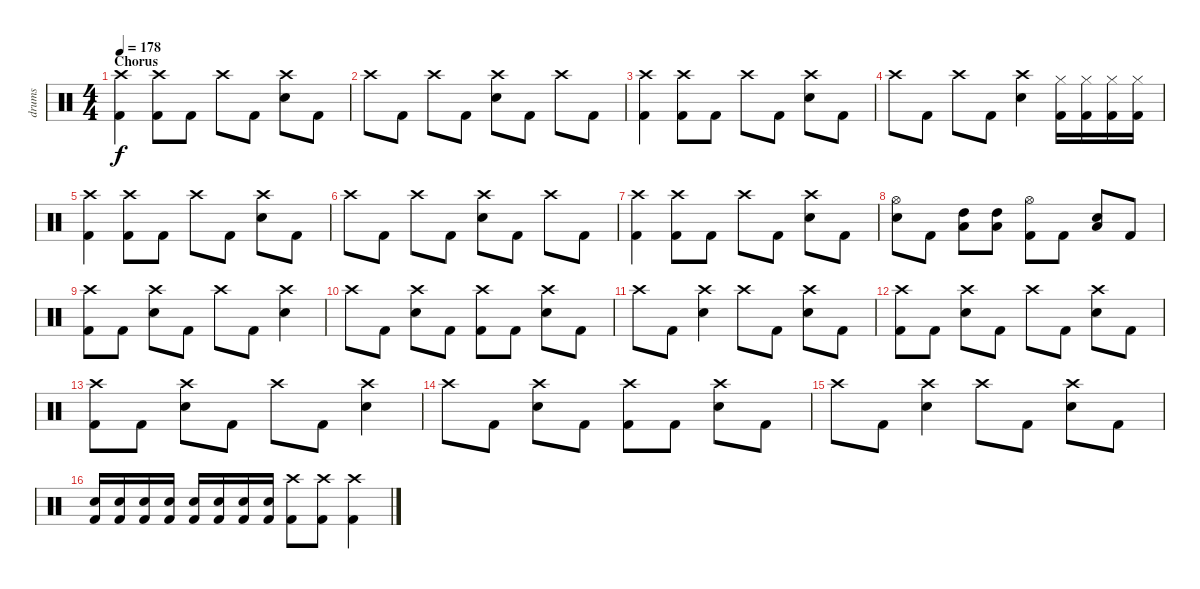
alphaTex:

\track ("drums" "drums") {instrument percussion}
\staff {score}
\articulation defaults
\ts (4 4)
\section ("" "Chorus")
\tempo 178
\clef neutral
\ks c
("Crash high (hit)" "Kick (hit) 2").4{dy f} ("Crash high (hit)" "Kick (hit) 2").8 "Kick (hit) 2".8 "Crash high (hit)".8 "Kick (hit) 2".8 ("Crash high (hit)" "Electric Snare (hit)").8 "Kick (hit) 2".8 |
"Crash high (hit)".8 "Kick (hit) 2".8 "Crash high (hit)".8 "Kick (hit) 2".8 ("Crash high (hit)" "Electric Snare (hit)").8 "Kick (hit) 2".8 "Crash high (hit)".8 "Kick (hit) 2".8 |
("Crash high (hit)" "Kick (hit) 2").4 ("Crash high (hit)" "Kick (hit) 2").8 "Kick (hit) 2".8 "Crash high (hit)".8 "Kick (hit) 2".8 ("Crash high (hit)" "Electric Snare (hit)").8 "Kick (hit) 2".8 |
"Crash high (hit)".8 "Kick (hit) 2".8 "Crash high (hit)".8 "Kick (hit) 2".8 ("Crash high (hit)" "Electric Snare (hit)").4 ("Hi-Hat (closed)" "Kick (hit) 2").16 ("Hi-Hat (closed)" "Kick (hit) 2").16 ("Hi-Hat (closed)" "Kick (hit) 2").16 ("Hi-Hat (closed)" "Kick (hit) 2").16 |
("Crash high (hit)" "Kick (hit) 2").4 ("Crash high (hit)" "Kick (hit) 2").8 "Kick (hit) 2".8 "Crash high (hit)".8 "Kick (hit) 2".8 ("Crash high (hit)" "Electric Snare (hit)").8 "Kick (hit) 2".8 |
"Crash high (hit)".8 "Kick (hit) 2".8 "Crash high (hit)".8 "Kick (hit) 2".8 ("Crash high (hit)" "Electric Snare (hit)").8 "Kick (hit) 2".8 "Crash high (hit)".8 "Kick (hit) 2".8 |
("Crash high (hit)" "Kick (hit) 2").4 ("Crash high (hit)" "Kick (hit) 2").8 "Kick (hit) 2".8 "Crash high (hit)".8 "Kick (hit) 2".8 ("Crash high (hit)" "Electric Snare (hit)").8 "Kick (hit) 2".8 |
("Hi-Hat (open)" "Electric Snare (hit)").8 "Kick (hit) 2".8 ("High Tom (hit)" "Low Tom (hit)").8 ("High Tom (hit)" "Low Tom (hit)").8 ("Hi-Hat (open)" "Kick (hit) 2").8 "Kick (hit) 2".8 ("Low Tom (hit)" "Electric Snare (hit)").8 "Kick (hit) 2".8 |
("Crash high (hit)" "Kick (hit) 2").8 "Kick (hit) 2".8 ("Crash high (hit)" "Electric Snare (hit)").8 "Kick (hit) 2".8 "Crash high (hit)".8 "Kick (hit) 2".8 ("Crash high (hit)" "Electric Snare (hit)").4 |
"Crash high (hit)".8 "Kick (hit) 2".8 ("Crash high (hit)" "Electric Snare (hit)").8 "Kick (hit) 2".8 ("Crash high (hit)" "Kick (hit) 2").8 "Kick (hit) 2".8 ("Crash high (hit)" "Electric Snare (hit)").8 "Kick (hit) 2".8 |
"Crash high (hit)".8 "Kick (hit) 2".8 ("Crash high (hit)" "Electric Snare (hit)").4 "Crash high (hit)".8 "Kick (hit) 2".8 ("Crash high (hit)" "Electric Snare (hit)").8 "Kick (hit) 2".8 |
("Crash high (hit)" "Kick (hit) 2").8 "Kick (hit) 2".8 ("Crash high (hit)" "Electric Snare (hit)").8 "Kick (hit) 2".8 "Crash high (hit)".8 "Kick (hit) 2".8 ("Crash high (hit)" "Electric Snare (hit)").8 "Kick (hit) 2".8 |
("Crash high (hit)" "Kick (hit) 2").8 "Kick (hit) 2".8 ("Crash high (hit)" "Electric Snare (hit)").8 "Kick (hit) 2".8 "Crash high (hit)".8 "Kick (hit) 2".8 ("Crash high (hit)" "Electric Snare (hit)").4 |
"Crash high (hit)".8 "Kick (hit) 2".8 ("Crash high (hit)" "Electric Snare (hit)").8 "Kick (hit) 2".8 ("Crash high (hit)" "Kick (hit) 2").8 "Kick (hit) 2".8 ("Crash high (hit)" "Electric Snare (hit)").8 "Kick (hit) 2".8 |
"Crash high (hit)".8 "Kick (hit) 2".8 ("Crash high (hit)" "Electric Snare (hit)").4 "Crash high (hit)".8 "Kick (hit) 2".8 ("Crash high (hit)" "Electric Snare (hit)").8 "Kick (hit) 2".8 |
("Electric Snare (hit)" "Kick (hit) 2").16 ("Electric Snare (hit)" "Kick (hit) 2").16 ("Electric Snare (hit)" "Kick (hit) 2").16 ("Electric Snare (hit)" "Kick (hit) 2").16 ("Electric Snare (hit)" "Kick (hit) 2").16 ("Electric Snare (hit)" "Kick (hit) 2").16 ("Electric Snare (hit)" "Kick (hit) 2").16 ("Electric Snare (hit)" "Kick (hit) 2").16 ("Crash high (hit)" "Kick (hit) 2").8 ("Crash high (hit)" "Kick (hit) 2").8 ("Crash high (hit)" "Kick (hit) 2").4
